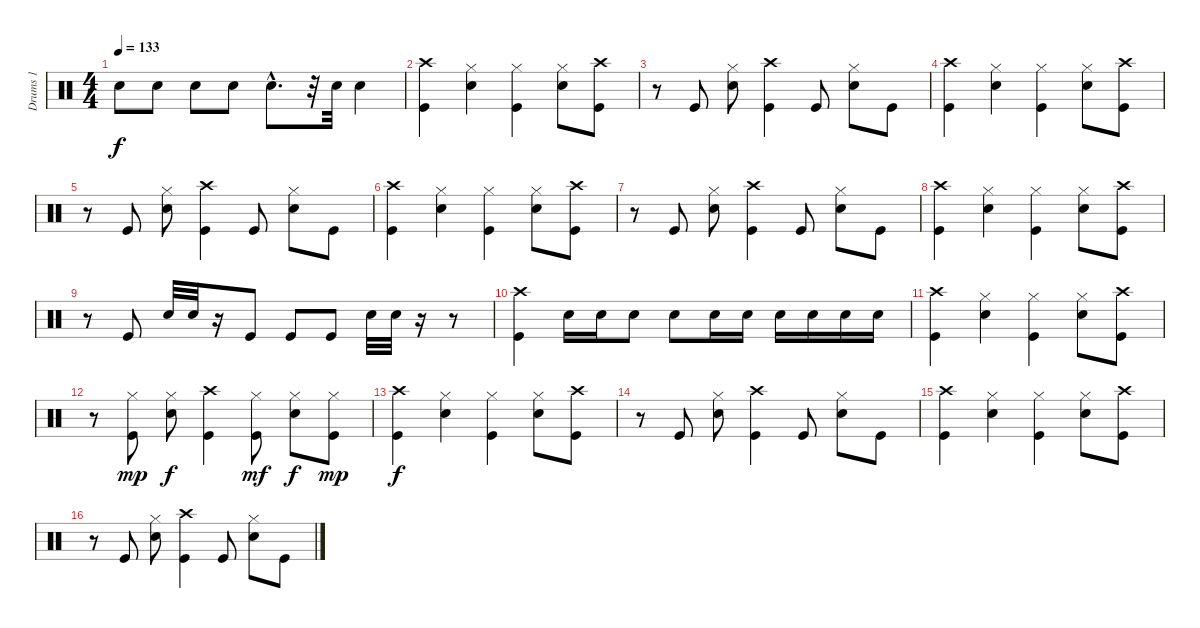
\track ("Drums 1" "Drums 1") {instrument percussion}
\staff {score}
\articulation defaults
\ts (4 4)
\tempo 133
\clef neutral
\ks c "Snare (hit) 2".8{dy f} "Snare (hit) 2".8 "Snare (hit) 2".8 "Snare (hit) 2".8 "Snare (hit) 2"{hac}.8{d}
r.32 "Snare (hit) 2".32 "Snare (hit) 2".4 |
("Crash high (hit)" "Kick (hit)").4 ("Hi-Hat (closed)" "Snare (hit) 2").4 ("Hi-Hat (closed)" "Kick (hit)").4 ("Hi-Hat (closed)" "Snare (hit) 2").8 ("Crash high (hit)" "Kick (hit)").8 |
r.8 "Kick (hit)".8 ("Hi-Hat (closed)" "Snare (hit) 2").8 ("Crash high (hit)" "Kick (hit)").4 "Kick (hit)".8 ("Hi-Hat (closed)" "Snare (hit) 2").8 "Kick (hit)".8 |
("Crash high (hit)" "Kick (hit)").4 ("Hi-Hat (closed)" "Snare (hit) 2").4 ("Hi-Hat (closed)" "Kick (hit)").4 ("Hi-Hat (closed)" "Snare (hit) 2").8 ("Crash high (hit)" "Kick (hit)").8 |
r.8 "Kick (hit)".8 ("Hi-Hat (closed)" "Snare (hit) 2").8 ("Crash high (hit)" "Kick (hit)").4 "Kick (hit)".8 ("Hi-Hat (closed)" "Snare (hit) 2").8 "Kick (hit)".8 |
("Crash high (hit)" "Kick (hit)").4 ("Hi-Hat (closed)" "Snare (hit) 2").4 ("Hi-Hat (closed)" "Kick (hit)").4 ("Hi-Hat (closed)" "Snare (hit) 2").8 ("Crash high (hit)" "Kick (hit)").8 |
r.8 "Kick (hit)".8 ("Hi-Hat (closed)" "Snare (hit) 2").8 ("Crash high (hit)" "Kick (hit)").4 "Kick (hit)".8 ("Hi-Hat (closed)" "Snare (hit) 2").8 "Kick (hit)".8 |
("Crash high (hit)" "Kick (hit)").4 ("Hi-Hat (closed)" "Snare (hit) 2").4 ("Hi-Hat (closed)" "Kick (hit)").4 ("Hi-Hat (closed)" "Snare (hit) 2").8 ("Crash high (hit)" "Kick (hit)").8 |
r.8 "Kick (hit)".8 "Snare (hit) 2".32 "Snare (hit) 2".32 r.16 "Kick (hit)".8 "Kick (hit)".8 "Kick (hit)".8 "Snare (hit) 2".32 "Snare (hit) 2".32 r.16 r.8 |
("Crash high (hit)" "Kick (hit)").4 "Snare (hit) 2".16 "Snare (hit) 2".16 "Snare (hit) 2".8 "Snare (hit) 2".8 "Snare (hit) 2".16 "Snare (hit) 2".16 "Snare (hit) 2".16 "Snare (hit) 2".16 "Snare (hit) 2".16 "Snare (hit) 2".16 |
("Crash high (hit)" "Kick (hit)").4 ("Hi-Hat (closed)" "Snare (hit) 2").4 ("Hi-Hat (closed)" "Kick (hit)").4 ("Hi-Hat (closed)" "Snare (hit) 2").8 ("Crash high (hit)" "Kick (hit)").8 |
r.8 ("Hi-Hat (closed)" "Kick (hit)").8{dy mp} ("Hi-Hat (closed)" "Snare (hit) 2").8{dy f} ("Crash high (hit)" "Kick (hit)").4 ("Hi-Hat (closed)" "Kick (hit)").8{dy mf} ("Hi-Hat (closed)" "Snare (hit) 2").8{dy f} ("Hi-Hat (closed)" "Kick (hit)").8{dy mp} |
("Crash high (hit)" "Kick (hit)").4{dy f} ("Hi-Hat (closed)" "Snare (hit) 2").4 ("Hi-Hat (closed)" "Kick (hit)").4 ("Hi-Hat (closed)" "Snare (hit) 2").8 ("Crash high (hit)" "Kick (hit)").8 |
r.8 "Kick (hit)".8 ("Hi-Hat (closed)" "Snare (hit) 2").8 ("Crash high (hit)" "Kick (hit)").4 "Kick (hit)".8 ("Hi-Hat (closed)" "Snare (hit) 2").8 "Kick (hit)".8 |
("Crash high (hit)" "Kick (hit)").4 ("Hi-Hat (closed)" "Snare (hit) 2").4 ("Hi-Hat (closed)" "Kick (hit)").4 ("Hi-Hat (closed)" "Snare (hit) 2").8 ("Crash high (hit)" "Kick (hit)").8 |
r.8 "Kick (hit)".8 ("Hi-Hat (closed)" "Snare (hit) 2").8 ("Crash high (hit)" "Kick (hit)").4 "Kick (hit)".8 ("Hi-Hat (closed)" "Snare (hit) 2").8 "Kick (hit)".8
